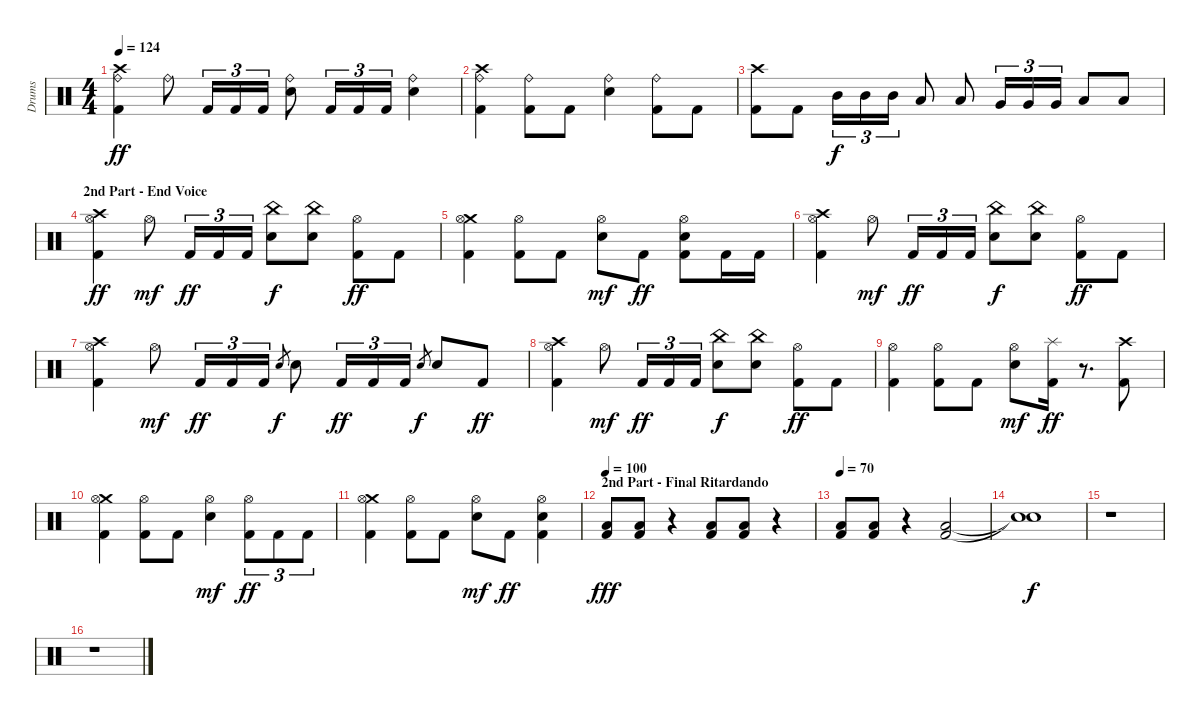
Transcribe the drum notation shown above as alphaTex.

\track ("Drums" "Drums") {instrument percussion}
\staff {score}
\articulation defaults
\ts (4 4)
\tempo 124
\clef neutral
\ks c
("Crash high (hit)" "Ride (bell)" "Kick (hit) 2").4{dy ff} "Ride (bell)".8 "Kick (hit) 2".16{tu (3 2)} "Kick (hit) 2".16{tu (3 2)} "Kick (hit) 2".16{tu (3 2)} ("Ride (bell)" "Snare (hit) 2").8 "Kick (hit) 2".16{tu (3 2)} "Kick (hit) 2".16{tu (3 2)} "Kick (hit) 2".16{tu (3 2)} ("Ride (bell)" "Snare (hit) 2").4 |
("Crash high (hit)" "Ride (bell)" "Kick (hit) 2").4 ("Ride (bell)" "Kick (hit) 2").8 "Kick (hit) 2".8 ("Ride (bell)" "Snare (hit) 2").4 ("Ride (bell)" "Kick (hit) 2").8 "Kick (hit) 2".8 |
("Crash high (hit)" "Kick (hit) 2").8 "Kick (hit) 2".8 "Mid Tom (hit)".16{tu (3 2) dy f} "Mid Tom (hit)".16{tu (3 2)} "Mid Tom (hit)".16{tu (3 2)} "Low Tom (hit)".8 "Low Tom (hit)".8 "Very Low Tom (hit)".16{tu (3 2)} "Very Low Tom (hit)".16{tu (3 2)} "Very Low Tom (hit)".16{tu (3 2)} "Low Floor Tom (hit)".8 "Low Floor Tom (hit)".8 |
\section ("" "2nd Part - End Voice")
("Crash high (hit)" "Hi-Hat (open)" "Kick (hit) 2").4{dy ff} "Hi-Hat (open)".8{dy mf} "Kick (hit) 2".16{tu (3 2) dy ff} "Kick (hit) 2".16{tu (3 2)} "Kick (hit) 2".16{tu (3 2)} ("China (hit)" "Snare (hit) 2").8{dy f} ("China (hit)" "Snare (hit) 2").8 ("Hi-Hat (open)" "Kick (hit) 2").8{dy ff} "Kick (hit) 2".8 |
("Crash medium (hit)" "Hi-Hat (open)" "Kick (hit) 2").4 ("Hi-Hat (open)" "Kick (hit) 2").8 "Kick (hit) 2".8 ("Hi-Hat (open)" "Snare (hit) 2").8{dy mf} "Kick (hit) 2".8{dy ff} ("Hi-Hat (open)" "Snare (hit) 2" "Kick (hit) 2").8 "Kick (hit) 2".16 "Kick (hit) 2".16 |
("Crash high (hit)" "Hi-Hat (open)" "Kick (hit) 2").4 "Hi-Hat (open)".8{dy mf} "Kick (hit) 2".16{tu (3 2) dy ff} "Kick (hit) 2".16{tu (3 2)} "Kick (hit) 2".16{tu (3 2)} ("China (hit)" "Snare (hit) 2").8{dy f} ("China (hit)" "Snare (hit) 2").8 ("Hi-Hat (open)" "Kick (hit) 2").8{dy ff} "Kick (hit) 2".8 |
("Crash high (hit)" "Hi-Hat (open)" "Kick (hit) 2").4 "Hi-Hat (open)".8{dy mf} "Kick (hit) 2".16{tu (3 2) dy ff} "Kick (hit) 2".16{tu (3 2)} "Kick (hit) 2".16{tu (3 2)} "Snare (hit) 2".8{gr dy f} "Snare (hit) 2".8 "Kick (hit) 2".16{tu (3 2) dy ff} "Kick (hit) 2".16{tu (3 2)} "Kick (hit) 2".16{tu (3 2)} "Snare (hit) 2".8{gr dy f} "Snare (hit) 2".8 "Kick (hit) 2".8{dy ff} |
("Crash high (hit)" "Hi-Hat (open)" "Kick (hit) 2").4 "Hi-Hat (open)".8{dy mf} "Kick (hit) 2".16{tu (3 2) dy ff} "Kick (hit) 2".16{tu (3 2)} "Kick (hit) 2".16{tu (3 2)} ("China (hit)" "Snare (hit) 2").8{dy f} ("China (hit)" "Snare (hit) 2").8 ("Hi-Hat (open)" "Kick (hit) 2").8{dy ff} "Kick (hit) 2".8 |
("Hi-Hat (open)" "Kick (hit) 2").4 ("Hi-Hat (open)" "Kick (hit) 2").8 "Kick (hit) 2".8 ("Hi-Hat (open)" "Snare (hit) 2").8{dy mf} ("Splash (hit)" "Kick (hit) 2").16{dy ff} r.8{d} ("Crash high (hit)" "Kick (hit) 2").8 |
("Crash medium (hit)" "Hi-Hat (open)" "Kick (hit) 2").4 ("Hi-Hat (open)" "Kick (hit) 2").8 "Kick (hit) 2".8 ("Hi-Hat (open)" "Snare (hit) 2").4{dy mf} ("Hi-Hat (open)" "Kick (hit) 2").8{tu (3 2) dy ff} "Kick (hit) 2".8{tu (3 2)} "Kick (hit) 2".8{tu (3 2)} |
("Crash medium (hit)" "Hi-Hat (open)" "Kick (hit) 2").4 ("Hi-Hat (open)" "Kick (hit) 2").8 "Kick (hit) 2".8 ("Hi-Hat (open)" "Snare (hit) 2").8{dy mf} "Kick (hit) 2".8{dy ff} ("Hi-Hat (open)" "Snare (hit) 2" "Kick (hit) 2").4 |
\section ("" "2nd Part - Final Ritardando")
\tempo 100
("Low Floor Tom (hit)" "Kick (hit) 2").8{dy fff} ("Low Floor Tom (hit)" "Kick (hit) 2").8 r.4 ("Low Floor Tom (hit)" "Kick (hit) 2").8 ("Low Floor Tom (hit)" "Kick (hit) 2").8 r.4 |
\tempo 70
("Low Floor Tom (hit)" "Kick (hit) 2").8 ("Low Floor Tom (hit)" "Kick (hit) 2").8 r.4 ("Low Floor Tom (hit)" "Kick (hit) 2").2 |
("Snare (hit)"{t} "Snare (hit)"{t}).1{dy f} |
r.1 |
r.1
